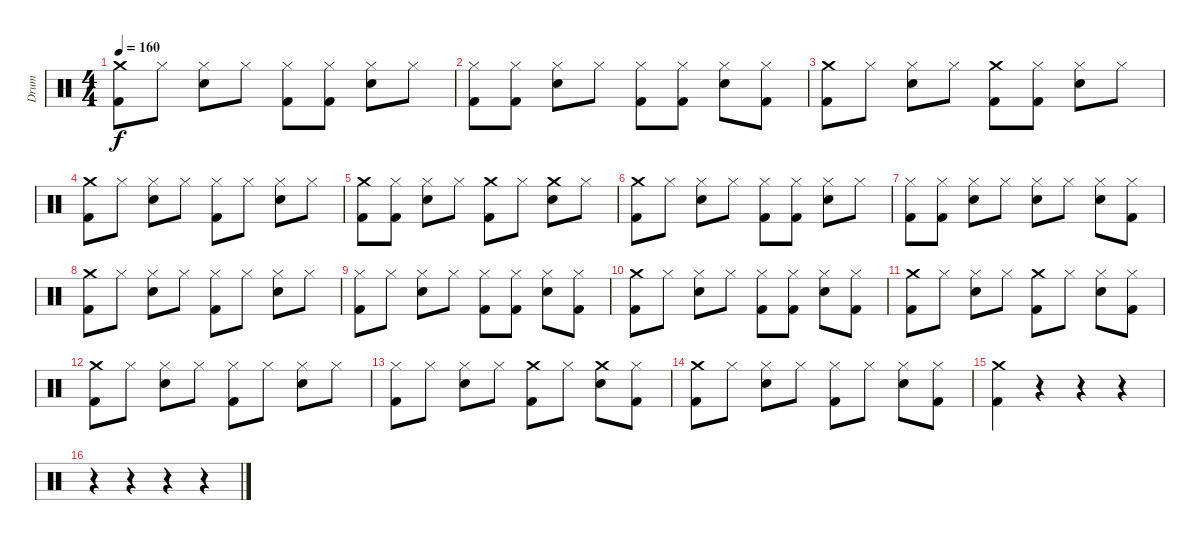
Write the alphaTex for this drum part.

\track ("Drum" "Drum") {instrument percussion}
\staff {score}
\articulation defaults
\ts (4 4)
\tempo 160
\clef neutral
\ks c
("Crash medium (hit)" "Kick (hit) 2").8{dy f} "Hi-Hat (closed)".8 ("Hi-Hat (closed)" "Snare (hit) 2").8 "Hi-Hat (closed)".8 ("Hi-Hat (closed)" "Kick (hit) 2").8 ("Hi-Hat (closed)" "Kick (hit) 2").8 ("Hi-Hat (closed)" "Snare (hit) 2").8 "Hi-Hat (closed)".8 |
("Hi-Hat (closed)" "Kick (hit) 2").8 ("Hi-Hat (closed)" "Kick (hit) 2").8 ("Hi-Hat (closed)" "Snare (hit) 2").8 "Hi-Hat (closed)".8 ("Hi-Hat (closed)" "Kick (hit) 2").8 ("Hi-Hat (closed)" "Kick (hit) 2").8 ("Hi-Hat (closed)" "Snare (hit) 2").8 ("Hi-Hat (closed)" "Kick (hit) 2").8 |
("Crash medium (hit)" "Kick (hit) 2").8 "Hi-Hat (closed)".8 ("Hi-Hat (closed)" "Snare (hit) 2").8 "Hi-Hat (closed)".8 ("Crash medium (hit)" "Kick (hit) 2").8 ("Hi-Hat (closed)" "Kick (hit) 2").8 ("Hi-Hat (closed)" "Snare (hit) 2").8 "Hi-Hat (closed)".8 |
("Crash medium (hit)" "Kick (hit) 2").8 "Hi-Hat (closed)".8 ("Hi-Hat (closed)" "Snare (hit) 2").8 "Hi-Hat (closed)".8 ("Hi-Hat (closed)" "Kick (hit) 2").8 "Hi-Hat (closed)".8 ("Hi-Hat (closed)" "Snare (hit) 2").8 "Hi-Hat (closed)".8 |
("Crash medium (hit)" "Kick (hit) 2").8 ("Hi-Hat (closed)" "Kick (hit) 2").8 ("Hi-Hat (closed)" "Snare (hit) 2").8 "Hi-Hat (closed)".8 ("Crash medium (hit)" "Kick (hit) 2").8 "Hi-Hat (closed)".8 ("Crash medium (hit)" "Snare (hit) 2").8 "Hi-Hat (closed)".8 |
("Crash medium (hit)" "Kick (hit) 2").8 "Hi-Hat (closed)".8 ("Hi-Hat (closed)" "Snare (hit) 2").8 "Hi-Hat (closed)".8 ("Hi-Hat (closed)" "Kick (hit) 2").8 ("Hi-Hat (closed)" "Kick (hit) 2").8 ("Hi-Hat (closed)" "Snare (hit) 2").8 "Hi-Hat (closed)".8 |
("Hi-Hat (closed)" "Kick (hit) 2").8 ("Hi-Hat (closed)" "Kick (hit) 2").8 ("Hi-Hat (closed)" "Snare (hit) 2").8 "Hi-Hat (closed)".8 ("Hi-Hat (closed)" "Snare (hit) 2").8 "Hi-Hat (closed)".8 ("Hi-Hat (closed)" "Snare (hit) 2").8 ("Hi-Hat (closed)" "Kick (hit) 2").8 |
("Crash medium (hit)" "Kick (hit) 2").8 "Hi-Hat (closed)".8 ("Hi-Hat (closed)" "Snare (hit) 2").8 "Hi-Hat (closed)".8 ("Hi-Hat (closed)" "Kick (hit) 2").8 "Hi-Hat (closed)".8 ("Hi-Hat (closed)" "Snare (hit) 2").8 "Hi-Hat (closed)".8 |
("Hi-Hat (closed)" "Kick (hit) 2").8 "Hi-Hat (closed)".8 ("Hi-Hat (closed)" "Snare (hit) 2").8 "Hi-Hat (closed)".8 ("Hi-Hat (closed)" "Kick (hit) 2").8 ("Hi-Hat (closed)" "Kick (hit) 2").8 ("Hi-Hat (closed)" "Snare (hit) 2").8 ("Hi-Hat (closed)" "Kick (hit) 2").8 |
("Crash medium (hit)" "Kick (hit) 2").8 "Hi-Hat (closed)".8 ("Hi-Hat (closed)" "Snare (hit) 2").8 "Hi-Hat (closed)".8 ("Hi-Hat (closed)" "Kick (hit) 2").8 ("Hi-Hat (closed)" "Kick (hit) 2").8 ("Hi-Hat (closed)" "Snare (hit) 2").8 ("Hi-Hat (closed)" "Kick (hit) 2").8 |
("Crash medium (hit)" "Kick (hit) 2").8 "Hi-Hat (closed)".8 ("Hi-Hat (closed)" "Snare (hit) 2").8 "Hi-Hat (closed)".8 ("Crash medium (hit)" "Kick (hit) 2").8 "Hi-Hat (closed)".8 ("Hi-Hat (closed)" "Snare (hit) 2").8 ("Hi-Hat (closed)" "Kick (hit) 2").8 |
("Crash medium (hit)" "Kick (hit) 2").8 "Hi-Hat (closed)".8 ("Hi-Hat (closed)" "Snare (hit) 2").8 "Hi-Hat (closed)".8 ("Hi-Hat (closed)" "Kick (hit) 2").8 "Hi-Hat (closed)".8 ("Hi-Hat (closed)" "Snare (hit) 2").8 "Hi-Hat (closed)".8 |
("Hi-Hat (closed)" "Kick (hit) 2").8 "Hi-Hat (closed)".8 ("Hi-Hat (closed)" "Snare (hit) 2").8 "Hi-Hat (closed)".8 ("Crash medium (hit)" "Kick (hit) 2").8 "Hi-Hat (closed)".8 ("Crash medium (hit)" "Snare (hit) 2").8 ("Hi-Hat (closed)" "Kick (hit) 2").8 |
("Crash medium (hit)" "Kick (hit) 2").8 "Hi-Hat (closed)".8 ("Hi-Hat (closed)" "Snare (hit) 2").8 "Hi-Hat (closed)".8 ("Hi-Hat (closed)" "Kick (hit) 2").8 "Hi-Hat (closed)".8 ("Hi-Hat (closed)" "Snare (hit) 2").8 ("Hi-Hat (closed)" "Kick (hit) 2").8 |
("Crash medium (hit)" "Kick (hit) 2").4 r.4 r.4 r.4 |
r.4 r.4 r.4 r.4
